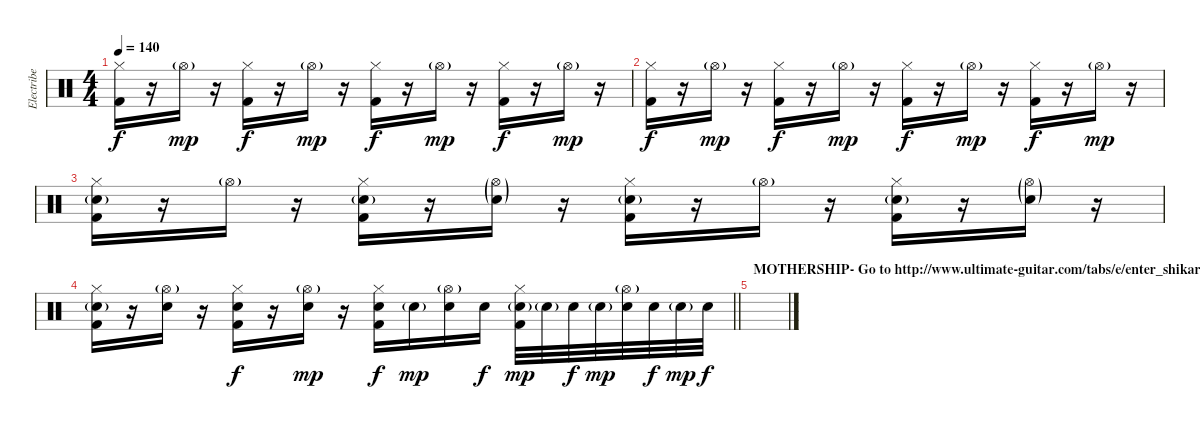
\track ("Electribe Beat" "Electribe ") {instrument percussion}
\staff {score}
\articulation defaults
\ts (4 4)
\tempo 140
\clef neutral
\ks c
("Hi-Hat (closed)" "Kick (hit) 2").16{dy f} r.16 "Hi-Hat (open)"{g}.16{dy mp} r.16 ("Hi-Hat (closed)" "Kick (hit) 2").16{dy f} r.16 "Hi-Hat (open)"{g}.16{dy mp} r.16 ("Hi-Hat (closed)" "Kick (hit) 2").16{dy f} r.16 "Hi-Hat (open)"{g}.16{dy mp} r.16 ("Hi-Hat (closed)" "Kick (hit) 2").16{dy f} r.16 "Hi-Hat (open)"{g}.16{dy mp} r.16 |
("Hi-Hat (closed)" "Kick (hit) 2").16{dy f} r.16 "Hi-Hat (open)"{g}.16{dy mp} r.16 ("Hi-Hat (closed)" "Kick (hit) 2").16{dy f} r.16 "Hi-Hat (open)"{g}.16{dy mp} r.16 ("Hi-Hat (closed)" "Kick (hit) 2").16{dy f} r.16 "Hi-Hat (open)"{g}.16{dy mp} r.16 ("Hi-Hat (closed)" "Kick (hit) 2").16{dy f} r.16 "Hi-Hat (open)"{g}.16{dy mp} r.16 |
("Hi-Hat (closed)" "Electric Snare (hit)"{g} "Kick (hit) 2").16 r.16 "Hi-Hat (open)"{g}.16 r.16 ("Hi-Hat (closed)" "Electric Snare (hit)"{g} "Kick (hit) 2").16 r.16 ("Hi-Hat (open)"{g} "Electric Snare (hit)"{g}).16 r.16 ("Hi-Hat (closed)" "Electric Snare (hit)"{g} "Kick (hit) 2").16 r.16 "Hi-Hat (open)"{g}.16 r.16 ("Hi-Hat (closed)" "Electric Snare (hit)"{g} "Kick (hit) 2").16 r.16 ("Hi-Hat (open)"{g} "Electric Snare (hit)"{g}).16 r.16 |
\barLineRight lightlight
("Hi-Hat (closed)" "Electric Snare (hit)"{g} "Kick (hit) 2").16 r.16 ("Hi-Hat (open)"{g} "Electric Snare (hit)").16 r.16 ("Hi-Hat (closed)" "Electric Snare (hit)" "Kick (hit) 2").16{dy f} r.16 ("Hi-Hat (open)"{g} "Electric Snare (hit)").16{dy mp} r.16 ("Hi-Hat (closed)" "Electric Snare (hit)" "Kick (hit) 2").16{dy f} "Electric Snare (hit)"{g}.16{dy mp} ("Hi-Hat (open)"{g} "Electric Snare (hit)").16 "Electric Snare (hit)".16{dy f} ("Hi-Hat (closed)" "Electric Snare (hit)"{g} "Kick (hit) 2").32{dy mp} "Electric Snare (hit)"{g}.32 "Electric Snare (hit)".32{dy f} "Electric Snare (hit)"{g}.32{dy mp} ("Hi-Hat (open)"{g} "Electric Snare (hit)").32 "Electric Snare (hit)".32{dy f} "Electric Snare (hit)"{g}.32{dy mp} "Electric Snare (hit)".32{dy f} |
\section ("" "MOTHERSHIP- Go to http://www.ultimate-guitar.com/tabs/e/enter_shikari/mothership_guitar_pro.htm For ")
